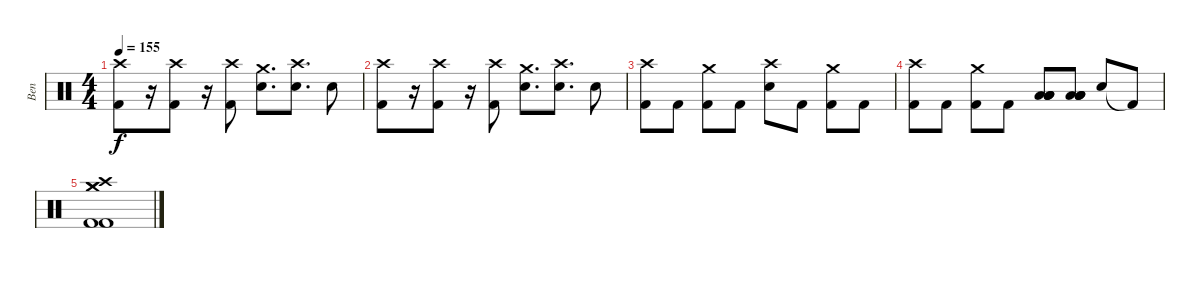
\track ("Ben" "Ben") {instrument percussion}
\staff {score}
\articulation defaults
\ts (4 4)
\tempo 155
\clef neutral
\ks c
("Kick (hit) 2" "Crash high (hit)").8{dy f} r.16 ("Kick (hit) 2" "Crash high (hit)").8 r.16 ("Kick (hit) 2" "Crash high (hit)").8 ("Electric Snare (hit)" "Crash medium (hit)").8{d} ("Electric Snare (hit)" "Crash high (hit)").8{d} "Electric Snare (hit)".8 |
("Kick (hit) 2" "Crash high (hit)").8 r.16 ("Kick (hit) 2" "Crash high (hit)").8 r.16 ("Kick (hit) 2" "Crash high (hit)").8 ("Electric Snare (hit)" "Crash medium (hit)").8{d} ("Electric Snare (hit)" "Crash high (hit)").8{d} "Electric Snare (hit)".8 |
("Kick (hit) 2" "Crash high (hit)").8 "Kick (hit) 2".8 ("Kick (hit) 2" "Crash medium (hit)").8 "Kick (hit) 2".8 ("Electric Snare (hit)" "Crash high (hit)").8 "Kick (hit) 2".8 ("Kick (hit) 2" "Crash medium (hit)").8 "Kick (hit) 2".8 |
("Kick (hit) 2" "Crash high (hit)").8 "Kick (hit) 2".8 ("Kick (hit) 2" "Crash medium (hit)").8 "Kick (hit) 2".8 ("Low Floor Tom (hit)" "Low Tom (hit)" "Low Floor Tom (hit)" "Low Tom (hit)").8 ("Low Floor Tom (hit)" "Low Tom (hit)" "Low Floor Tom (hit)" "Low Tom (hit)").8 "Electric Snare (hit)".8 "Kick (hit) 2"{t}.8 |
("Kick (hit) 2" "Kick (hit) 2" "Crash medium (hit)" "Crash medium (hit)" "Crash high (hit)").1
